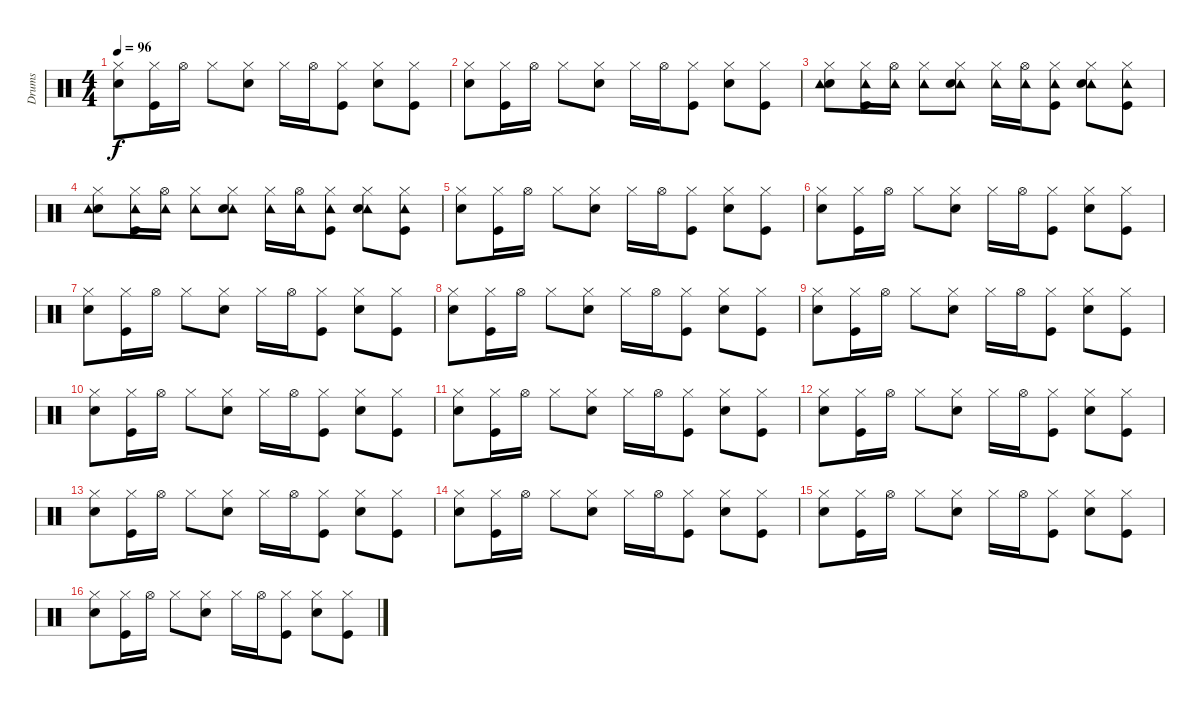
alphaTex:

\track ("Drums" "Drums") {instrument percussion}
\staff {score}
\articulation defaults
\ts (4 4)
\tempo 96
\clef neutral
\ks c
("Hi-Hat (closed)" "Electric Snare (hit)").8{dy f} ("Hi-Hat (closed)" "Kick (hit)").16 "Hi-Hat (open)".16 "Hi-Hat (closed)".8 ("Hi-Hat (closed)" "Electric Snare (hit)").8 "Hi-Hat (closed)".16 "Hi-Hat (open)".16 ("Hi-Hat (closed)" "Kick (hit)").8 ("Hi-Hat (closed)" "Electric Snare (hit)").8 ("Hi-Hat (closed)" "Kick (hit)").8 |
("Hi-Hat (closed)" "Electric Snare (hit)").8 ("Hi-Hat (closed)" "Kick (hit)").16 "Hi-Hat (open)".16 "Hi-Hat (closed)".8 ("Hi-Hat (closed)" "Electric Snare (hit)").8 "Hi-Hat (closed)".16 "Hi-Hat (open)".16 ("Hi-Hat (closed)" "Kick (hit)").8 ("Hi-Hat (closed)" "Electric Snare (hit)").8 ("Hi-Hat (closed)" "Kick (hit)").8 |
("Hi-Hat (closed)" "Electric Snare (hit)" "Tambourine (hit)").8 ("Hi-Hat (closed)" "Tambourine (hit)" "Kick (hit)").16 ("Hi-Hat (open)" "Tambourine (hit)").16 ("Hi-Hat (closed)" "Tambourine (hit)").8 ("Hi-Hat (closed)" "Tambourine (hit)" "Electric Snare (hit)").8 ("Hi-Hat (closed)" "Tambourine (hit)").16 ("Hi-Hat (open)" "Tambourine (hit)").16 ("Hi-Hat (closed)" "Tambourine (hit)" "Kick (hit)").8 ("Hi-Hat (closed)" "Tambourine (hit)" "Electric Snare (hit)").8 ("Hi-Hat (closed)" "Tambourine (hit)" "Kick (hit)").8 |
("Hi-Hat (closed)" "Electric Snare (hit)" "Tambourine (hit)").8 ("Hi-Hat (closed)" "Tambourine (hit)" "Kick (hit)").16 ("Hi-Hat (open)" "Tambourine (hit)").16 ("Hi-Hat (closed)" "Tambourine (hit)").8 ("Hi-Hat (closed)" "Tambourine (hit)" "Electric Snare (hit)").8 ("Hi-Hat (closed)" "Tambourine (hit)").16 ("Hi-Hat (open)" "Tambourine (hit)").16 ("Hi-Hat (closed)" "Tambourine (hit)" "Kick (hit)").8 ("Hi-Hat (closed)" "Tambourine (hit)" "Electric Snare (hit)").8 ("Hi-Hat (closed)" "Tambourine (hit)" "Kick (hit)").8 |
("Hi-Hat (closed)" "Electric Snare (hit)").8 ("Hi-Hat (closed)" "Kick (hit)").16 "Hi-Hat (open)".16 "Hi-Hat (closed)".8 ("Hi-Hat (closed)" "Electric Snare (hit)").8 "Hi-Hat (closed)".16 "Hi-Hat (open)".16 ("Hi-Hat (closed)" "Kick (hit)").8 ("Hi-Hat (closed)" "Electric Snare (hit)").8 ("Hi-Hat (closed)" "Kick (hit)").8 |
("Hi-Hat (closed)" "Electric Snare (hit)").8 ("Hi-Hat (closed)" "Kick (hit)").16 "Hi-Hat (open)".16 "Hi-Hat (closed)".8 ("Hi-Hat (closed)" "Electric Snare (hit)").8 "Hi-Hat (closed)".16 "Hi-Hat (open)".16 ("Hi-Hat (closed)" "Kick (hit)").8 ("Hi-Hat (closed)" "Electric Snare (hit)").8 ("Hi-Hat (closed)" "Kick (hit)").8 |
("Hi-Hat (closed)" "Electric Snare (hit)").8 ("Hi-Hat (closed)" "Kick (hit)").16 "Hi-Hat (open)".16 "Hi-Hat (closed)".8 ("Hi-Hat (closed)" "Electric Snare (hit)").8 "Hi-Hat (closed)".16 "Hi-Hat (open)".16 ("Hi-Hat (closed)" "Kick (hit)").8 ("Hi-Hat (closed)" "Electric Snare (hit)").8 ("Hi-Hat (closed)" "Kick (hit)").8 |
("Hi-Hat (closed)" "Electric Snare (hit)").8 ("Hi-Hat (closed)" "Kick (hit)").16 "Hi-Hat (open)".16 "Hi-Hat (closed)".8 ("Hi-Hat (closed)" "Electric Snare (hit)").8 "Hi-Hat (closed)".16 "Hi-Hat (open)".16 ("Hi-Hat (closed)" "Kick (hit)").8 ("Hi-Hat (closed)" "Electric Snare (hit)").8 ("Hi-Hat (closed)" "Kick (hit)").8 |
("Hi-Hat (closed)" "Electric Snare (hit)").8 ("Hi-Hat (closed)" "Kick (hit)").16 "Hi-Hat (open)".16 "Hi-Hat (closed)".8 ("Hi-Hat (closed)" "Electric Snare (hit)").8 "Hi-Hat (closed)".16 "Hi-Hat (open)".16 ("Hi-Hat (closed)" "Kick (hit)").8 ("Hi-Hat (closed)" "Electric Snare (hit)").8 ("Hi-Hat (closed)" "Kick (hit)").8 |
("Hi-Hat (closed)" "Electric Snare (hit)").8 ("Hi-Hat (closed)" "Kick (hit)").16 "Hi-Hat (open)".16 "Hi-Hat (closed)".8 ("Hi-Hat (closed)" "Electric Snare (hit)").8 "Hi-Hat (closed)".16 "Hi-Hat (open)".16 ("Hi-Hat (closed)" "Kick (hit)").8 ("Hi-Hat (closed)" "Electric Snare (hit)").8 ("Hi-Hat (closed)" "Kick (hit)").8 |
("Hi-Hat (closed)" "Electric Snare (hit)").8 ("Hi-Hat (closed)" "Kick (hit)").16 "Hi-Hat (open)".16 "Hi-Hat (closed)".8 ("Hi-Hat (closed)" "Electric Snare (hit)").8 "Hi-Hat (closed)".16 "Hi-Hat (open)".16 ("Hi-Hat (closed)" "Kick (hit)").8 ("Hi-Hat (closed)" "Electric Snare (hit)").8 ("Hi-Hat (closed)" "Kick (hit)").8 |
("Hi-Hat (closed)" "Electric Snare (hit)").8 ("Hi-Hat (closed)" "Kick (hit)").16 "Hi-Hat (open)".16 "Hi-Hat (closed)".8 ("Hi-Hat (closed)" "Electric Snare (hit)").8 "Hi-Hat (closed)".16 "Hi-Hat (open)".16 ("Hi-Hat (closed)" "Kick (hit)").8 ("Hi-Hat (closed)" "Electric Snare (hit)").8 ("Hi-Hat (closed)" "Kick (hit)").8 |
("Hi-Hat (closed)" "Electric Snare (hit)").8 ("Hi-Hat (closed)" "Kick (hit)").16 "Hi-Hat (open)".16 "Hi-Hat (closed)".8 ("Hi-Hat (closed)" "Electric Snare (hit)").8 "Hi-Hat (closed)".16 "Hi-Hat (open)".16 ("Hi-Hat (closed)" "Kick (hit)").8 ("Hi-Hat (closed)" "Electric Snare (hit)").8 ("Hi-Hat (closed)" "Kick (hit)").8 |
("Hi-Hat (closed)" "Electric Snare (hit)").8 ("Hi-Hat (closed)" "Kick (hit)").16 "Hi-Hat (open)".16 "Hi-Hat (closed)".8 ("Hi-Hat (closed)" "Electric Snare (hit)").8 "Hi-Hat (closed)".16 "Hi-Hat (open)".16 ("Hi-Hat (closed)" "Kick (hit)").8 ("Hi-Hat (closed)" "Electric Snare (hit)").8 ("Hi-Hat (closed)" "Kick (hit)").8 |
("Hi-Hat (closed)" "Electric Snare (hit)").8 ("Hi-Hat (closed)" "Kick (hit)").16 "Hi-Hat (open)".16 "Hi-Hat (closed)".8 ("Hi-Hat (closed)" "Electric Snare (hit)").8 "Hi-Hat (closed)".16 "Hi-Hat (open)".16 ("Hi-Hat (closed)" "Kick (hit)").8 ("Hi-Hat (closed)" "Electric Snare (hit)").8 ("Hi-Hat (closed)" "Kick (hit)").8 |
("Hi-Hat (closed)" "Electric Snare (hit)").8 ("Hi-Hat (closed)" "Kick (hit)").16 "Hi-Hat (open)".16 "Hi-Hat (closed)".8 ("Hi-Hat (closed)" "Electric Snare (hit)").8 "Hi-Hat (closed)".16 "Hi-Hat (open)".16 ("Hi-Hat (closed)" "Kick (hit)").8 ("Hi-Hat (closed)" "Electric Snare (hit)").8 ("Hi-Hat (closed)" "Kick (hit)").8
